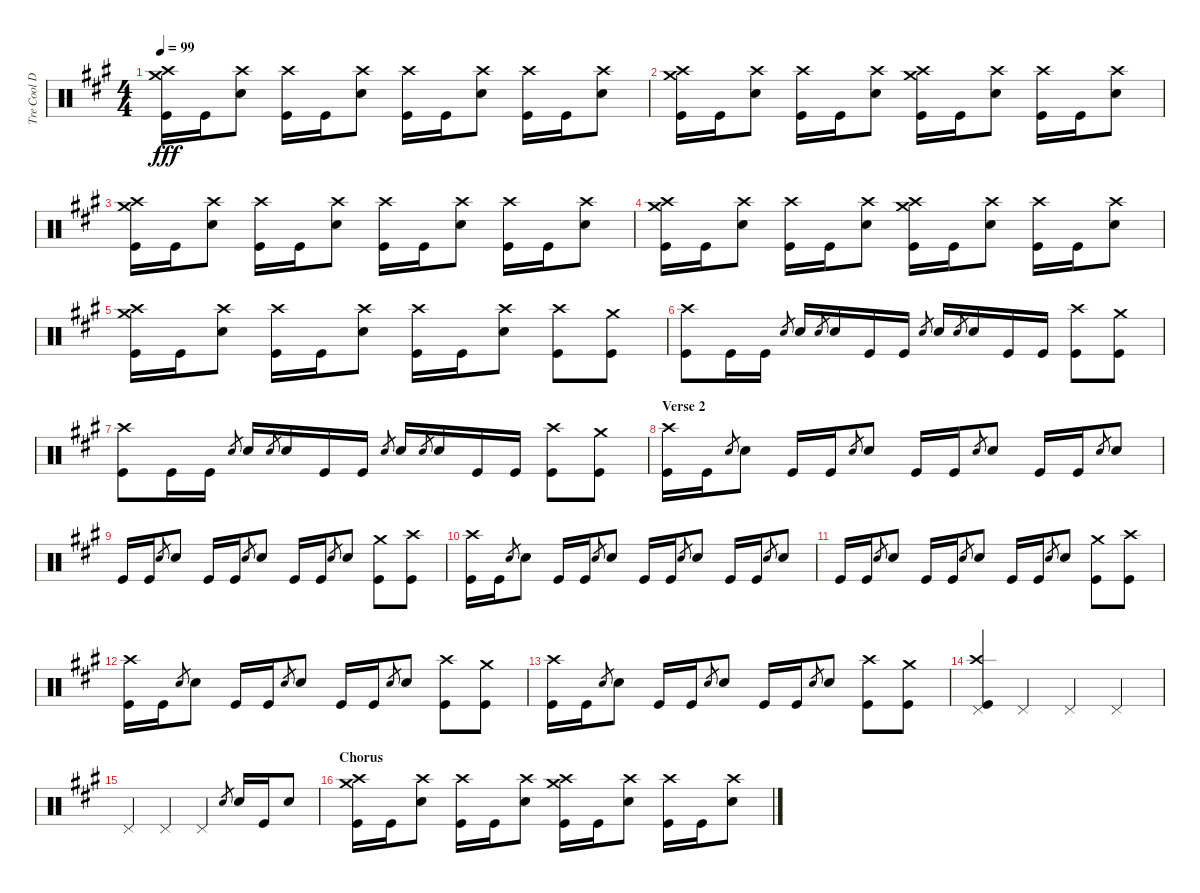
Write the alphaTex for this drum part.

\track ("Tre Cool Drums" "Tre Cool D") {instrument percussion}
\staff {score}
\articulation defaults
\ts (4 4)
\tempo 99
\clef neutral
\ks a
("Kick (hit)" "Crash high (hit)" "Crash medium (hit)").16{dy fff} "Kick (hit)".16 ("Snare (hit) 2" "Crash high (hit)").8 ("Kick (hit)" "Crash high (hit)").16 "Kick (hit)".16 ("Snare (hit) 2" "Crash high (hit)").8 ("Kick (hit)" "Crash high (hit)").16 "Kick (hit)".16 ("Snare (hit) 2" "Crash high (hit)").8 ("Kick (hit)" "Crash high (hit)").16 "Kick (hit)".16 ("Snare (hit) 2" "Crash high (hit)").8 |
("Kick (hit)" "Crash high (hit)" "Crash medium (hit)").16 "Kick (hit)".16 ("Snare (hit) 2" "Crash high (hit)").8 ("Kick (hit)" "Crash high (hit)").16 "Kick (hit)".16 ("Snare (hit) 2" "Crash high (hit)").8 ("Kick (hit)" "Crash high (hit)" "Crash medium (hit)").16 "Kick (hit)".16 ("Snare (hit) 2" "Crash high (hit)").8 ("Kick (hit)" "Crash high (hit)").16 "Kick (hit)".16 ("Snare (hit) 2" "Crash high (hit)").8 |
("Kick (hit)" "Crash high (hit)" "Crash medium (hit)").16 "Kick (hit)".16 ("Snare (hit) 2" "Crash high (hit)").8 ("Kick (hit)" "Crash high (hit)").16 "Kick (hit)".16 ("Snare (hit) 2" "Crash high (hit)").8 ("Kick (hit)" "Crash high (hit)").16 "Kick (hit)".16 ("Snare (hit) 2" "Crash high (hit)").8 ("Kick (hit)" "Crash high (hit)").16 "Kick (hit)".16 ("Snare (hit) 2" "Crash high (hit)").8 |
("Kick (hit)" "Crash high (hit)" "Crash medium (hit)").16 "Kick (hit)".16 ("Snare (hit) 2" "Crash high (hit)").8 ("Kick (hit)" "Crash high (hit)").16 "Kick (hit)".16 ("Snare (hit) 2" "Crash high (hit)").8 ("Kick (hit)" "Crash high (hit)" "Crash medium (hit)").16 "Kick (hit)".16 ("Snare (hit) 2" "Crash high (hit)").8 ("Kick (hit)" "Crash high (hit)").16 "Kick (hit)".16 ("Snare (hit) 2" "Crash high (hit)").8 |
("Kick (hit)" "Crash high (hit)" "Crash medium (hit)").16 "Kick (hit)".16 ("Snare (hit) 2" "Crash high (hit)").8 ("Kick (hit)" "Crash high (hit)").16 "Kick (hit)".16 ("Snare (hit) 2" "Crash high (hit)").8 ("Kick (hit)" "Crash high (hit)").16 "Kick (hit)".16 ("Snare (hit) 2" "Crash high (hit)").8 ("Kick (hit)" "Crash high (hit)").8 ("Kick (hit)" "Crash medium (hit)").8 |
("Kick (hit)" "Crash high (hit)").8 "Kick (hit)".16 "Kick (hit)".16 "Snare (hit)".8{gr} "Snare (hit) 2".16 "Snare (hit)".8{gr} "Snare (hit) 2".16 "Kick (hit)".16 "Kick (hit)".16 "Snare (hit)".8{gr} "Snare (hit) 2".16 "Snare (hit)".8{gr} "Snare (hit) 2".16 "Kick (hit)".16 "Kick (hit)".16 ("Kick (hit)" "Crash high (hit)").8 ("Kick (hit)" "Crash medium (hit)").8 |
("Kick (hit)" "Crash high (hit)").8 "Kick (hit)".16 "Kick (hit)".16 "Snare (hit)".8{gr} "Snare (hit) 2".16 "Snare (hit)".8{gr} "Snare (hit) 2".16 "Kick (hit)".16 "Kick (hit)".16 "Snare (hit)".8{gr} "Snare (hit) 2".16 "Snare (hit)".8{gr} "Snare (hit) 2".16 "Kick (hit)".16 "Kick (hit)".16 ("Kick (hit)" "Crash high (hit)").8 ("Kick (hit)" "Crash medium (hit)").8 |
\section ("" "Verse 2")
("Crash high (hit)" "Kick (hit)").16 "Kick (hit)".16 "Snare (hit)".8{gr} "Snare (hit) 2".8 "Kick (hit)".16 "Kick (hit)".16 "Snare (hit)".8{gr} "Snare (hit) 2".8 "Kick (hit)".16 "Kick (hit)".16 "Snare (hit)".8{gr} "Snare (hit) 2".8 "Kick (hit)".16 "Kick (hit)".16 "Snare (hit)".8{gr} "Snare (hit) 2".8 |
"Kick (hit)".16 "Kick (hit)".16 "Snare (hit)".8{gr} "Snare (hit) 2".8 "Kick (hit)".16 "Kick (hit)".16 "Snare (hit)".8{gr} "Snare (hit) 2".8 "Kick (hit)".16 "Kick (hit)".16 "Snare (hit)".8{gr} "Snare (hit) 2".8 ("Kick (hit)" "Crash medium (hit)").8 ("Kick (hit)" "Crash high (hit)").8 |
("Crash high (hit)" "Kick (hit)").16 "Kick (hit)".16 "Snare (hit)".8{gr} "Snare (hit) 2".8 "Kick (hit)".16 "Kick (hit)".16 "Snare (hit)".8{gr} "Snare (hit) 2".8 "Kick (hit)".16 "Kick (hit)".16 "Snare (hit)".8{gr} "Snare (hit) 2".8 "Kick (hit)".16 "Kick (hit)".16 "Snare (hit)".8{gr} "Snare (hit) 2".8 |
"Kick (hit)".16 "Kick (hit)".16 "Snare (hit)".8{gr} "Snare (hit) 2".8 "Kick (hit)".16 "Kick (hit)".16 "Snare (hit)".8{gr} "Snare (hit) 2".8 "Kick (hit)".16 "Kick (hit)".16 "Snare (hit)".8{gr} "Snare (hit) 2".8 ("Kick (hit)" "Crash medium (hit)").8 ("Kick (hit)" "Crash high (hit)").8 |
("Crash high (hit)" "Kick (hit)").16 "Kick (hit)".16 "Snare (hit)".8{gr} "Snare (hit) 2".8 "Kick (hit)".16 "Kick (hit)".16 "Snare (hit)".8{gr} "Snare (hit) 2".8 "Kick (hit)".16 "Kick (hit)".16 "Snare (hit)".8{gr} "Snare (hit) 2".8 ("Kick (hit)" "Crash high (hit)").8 ("Kick (hit)" "Crash medium (hit)").8 |
("Crash high (hit)" "Kick (hit)").16 "Kick (hit)".16 "Snare (hit)".8{gr} "Snare (hit) 2".8 "Kick (hit)".16 "Kick (hit)".16 "Snare (hit)".8{gr} "Snare (hit) 2".8 "Kick (hit)".16 "Kick (hit)".16 "Snare (hit)".8{gr} "Snare (hit) 2".8 ("Kick (hit)" "Crash high (hit)").8 ("Kick (hit)" "Crash medium (hit)").8 |
("Crash high (hit)" "Kick (hit)" "Pedal Hi-Hat (hit)").4 "Pedal Hi-Hat (hit)".4 "Pedal Hi-Hat (hit)".4 "Pedal Hi-Hat (hit)".4 |
"Pedal Hi-Hat (hit)".4 "Pedal Hi-Hat (hit)".4 "Pedal Hi-Hat (hit)".4 "Snare (hit)".8{gr} "Snare (hit) 2".16 "Kick (hit)".16 "Snare (hit) 2".8 |
\section ("" "Chorus")
("Kick (hit)" "Crash high (hit)" "Crash medium (hit)").16 "Kick (hit)".16 ("Snare (hit) 2" "Crash high (hit)").8 ("Kick (hit)" "Crash high (hit)").16 "Kick (hit)".16 ("Snare (hit) 2" "Crash high (hit)").8 ("Kick (hit)" "Crash high (hit)" "Crash medium (hit)").16 "Kick (hit)".16 ("Snare (hit) 2" "Crash high (hit)").8 ("Kick (hit)" "Crash high (hit)").16 "Kick (hit)".16 ("Snare (hit) 2" "Crash high (hit)").8
